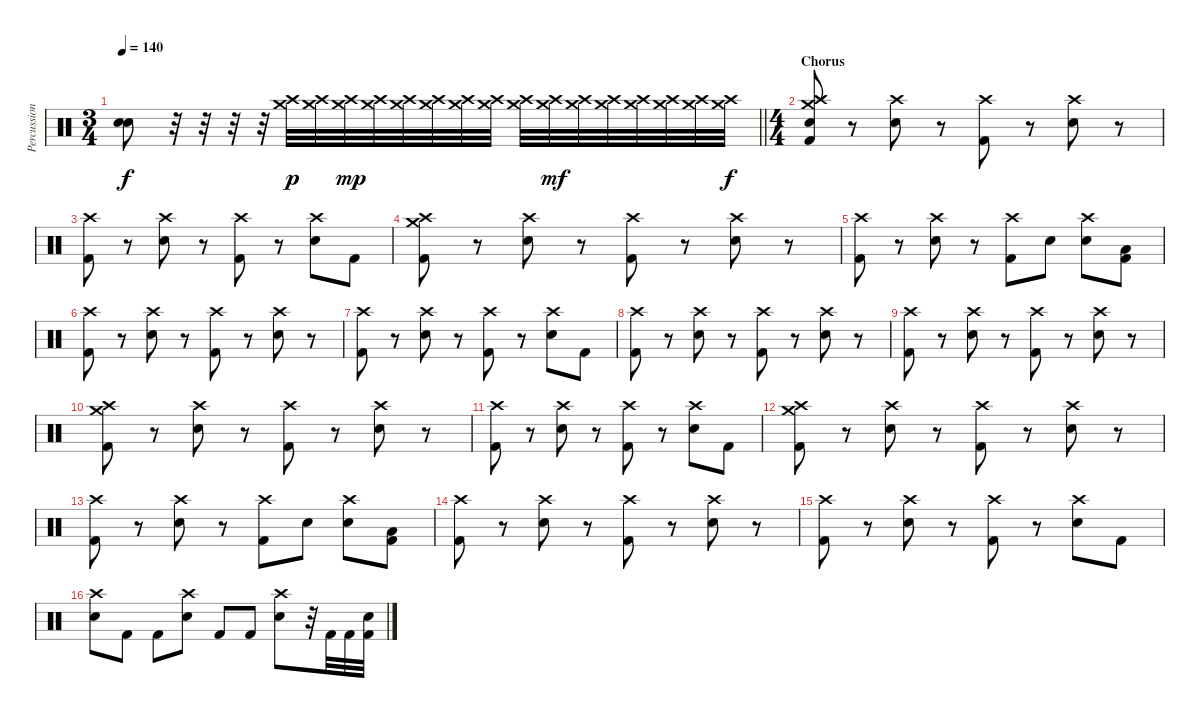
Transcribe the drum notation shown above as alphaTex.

\track ("Percussion" "Percussion") {instrument percussion}
\staff {score}
\articulation defaults
\ts (3 4)
\tempo 140
\clef neutral
\barLineRight lightlight
\ks c
("Electric Snare (hit)" "Snare (hit) 2").8{dy f} r.32 r.32 r.32 r.32 ("Crash high (hit)" "Crash medium (hit)").32{dy p} ("Crash high (hit)" "Crash medium (hit)").32 ("Crash high (hit)" "Crash medium (hit)").32{dy mp} ("Crash high (hit)" "Crash medium (hit)").32 ("Crash high (hit)" "Crash medium (hit)").32 ("Crash high (hit)" "Crash medium (hit)").32 ("Crash high (hit)" "Crash medium (hit)").32 ("Crash high (hit)" "Crash medium (hit)").32 ("Crash high (hit)" "Crash medium (hit)").32 ("Crash high (hit)" "Crash medium (hit)").32{dy mf} ("Crash high (hit)" "Crash medium (hit)").32 ("Crash high (hit)" "Crash medium (hit)").32 ("Crash high (hit)" "Crash medium (hit)").32 ("Crash high (hit)" "Crash medium (hit)").32 ("Crash high (hit)" "Crash medium (hit)").32 ("Crash high (hit)" "Crash medium (hit)").32{dy f} |
\ts (4 4)
\section ("" "Chorus")
("Crash high (hit)" "Crash medium (hit)" "Snare (hit)" "Kick (hit) 2").8 r.8 ("Electric Snare (hit)" "Crash high (hit)").8 r.8 ("Crash high (hit)" "Kick (hit) 2").8 r.8 ("Electric Snare (hit)" "Crash high (hit)").8 r.8 |
("Crash high (hit)" "Kick (hit) 2").8 r.8 ("Electric Snare (hit)" "Crash high (hit)").8 r.8 ("Crash high (hit)" "Kick (hit) 2").8 r.8 ("Electric Snare (hit)" "Crash high (hit)").8 "Kick (hit) 2".8 |
("Crash high (hit)" "Crash medium (hit)" "Kick (hit) 2").8 r.8 ("Electric Snare (hit)" "Crash high (hit)").8 r.8 ("Crash high (hit)" "Kick (hit) 2").8 r.8 ("Electric Snare (hit)" "Crash high (hit)").8 r.8 |
("Crash high (hit)" "Kick (hit) 2").8 r.8 ("Electric Snare (hit)" "Crash high (hit)").8 r.8 ("Crash high (hit)" "Kick (hit) 2").8 "Electric Snare (hit)".8 ("Electric Snare (hit)" "Crash high (hit)").8 ("Low Floor Tom (hit)" "Kick (hit) 2").8 |
("Crash high (hit)" "Kick (hit) 2").8 r.8 ("Electric Snare (hit)" "Crash high (hit)").8 r.8 ("Crash high (hit)" "Kick (hit) 2").8 r.8 ("Electric Snare (hit)" "Crash high (hit)").8 r.8 |
("Crash high (hit)" "Kick (hit) 2").8 r.8 ("Electric Snare (hit)" "Crash high (hit)").8 r.8 ("Crash high (hit)" "Kick (hit) 2").8 r.8 ("Electric Snare (hit)" "Crash high (hit)").8 "Kick (hit) 2".8 |
("Crash high (hit)" "Kick (hit) 2").8 r.8 ("Electric Snare (hit)" "Crash high (hit)").8 r.8 ("Crash high (hit)" "Kick (hit) 2").8 r.8 ("Electric Snare (hit)" "Crash high (hit)").8 r.8 |
("Crash high (hit)" "Kick (hit) 2").8 r.8 ("Electric Snare (hit)" "Crash high (hit)").8 r.8 ("Crash high (hit)" "Kick (hit) 2").8 r.8 ("Electric Snare (hit)" "Crash high (hit)").8 r.8 |
("Crash high (hit)" "Crash medium (hit)" "Kick (hit) 2").8 r.8 ("Electric Snare (hit)" "Crash high (hit)").8 r.8 ("Crash high (hit)" "Kick (hit) 2").8 r.8 ("Electric Snare (hit)" "Crash high (hit)").8 r.8 |
("Crash high (hit)" "Kick (hit) 2").8 r.8 ("Electric Snare (hit)" "Crash high (hit)").8 r.8 ("Crash high (hit)" "Kick (hit) 2").8 r.8 ("Electric Snare (hit)" "Crash high (hit)").8 "Kick (hit) 2".8 |
("Crash high (hit)" "Crash medium (hit)" "Kick (hit) 2").8 r.8 ("Electric Snare (hit)" "Crash high (hit)").8 r.8 ("Crash high (hit)" "Kick (hit) 2").8 r.8 ("Electric Snare (hit)" "Crash high (hit)").8 r.8 |
("Crash high (hit)" "Kick (hit) 2").8 r.8 ("Electric Snare (hit)" "Crash high (hit)").8 r.8 ("Crash high (hit)" "Kick (hit) 2").8 "Electric Snare (hit)".8 ("Electric Snare (hit)" "Crash high (hit)").8 ("Low Floor Tom (hit)" "Kick (hit) 2").8 |
("Crash high (hit)" "Kick (hit) 2").8 r.8 ("Electric Snare (hit)" "Crash high (hit)").8 r.8 ("Crash high (hit)" "Kick (hit) 2").8 r.8 ("Electric Snare (hit)" "Crash high (hit)").8 r.8 |
("Crash high (hit)" "Kick (hit) 2").8 r.8 ("Electric Snare (hit)" "Crash high (hit)").8 r.8 ("Crash high (hit)" "Kick (hit) 2").8 r.8 ("Electric Snare (hit)" "Crash high (hit)").8 "Kick (hit) 2".8 |
("Crash high (hit)" "Electric Snare (hit)").8 "Kick (hit) 2".8 "Kick (hit) 2".8 ("Crash high (hit)" "Electric Snare (hit)").8 "Kick (hit) 2".8 "Kick (hit) 2".8 ("Crash high (hit)" "Electric Snare (hit)").8 r.32 "Kick (hit) 2".32 "Kick (hit) 2".32 ("Electric Snare (hit)" "Kick (hit) 2").32
